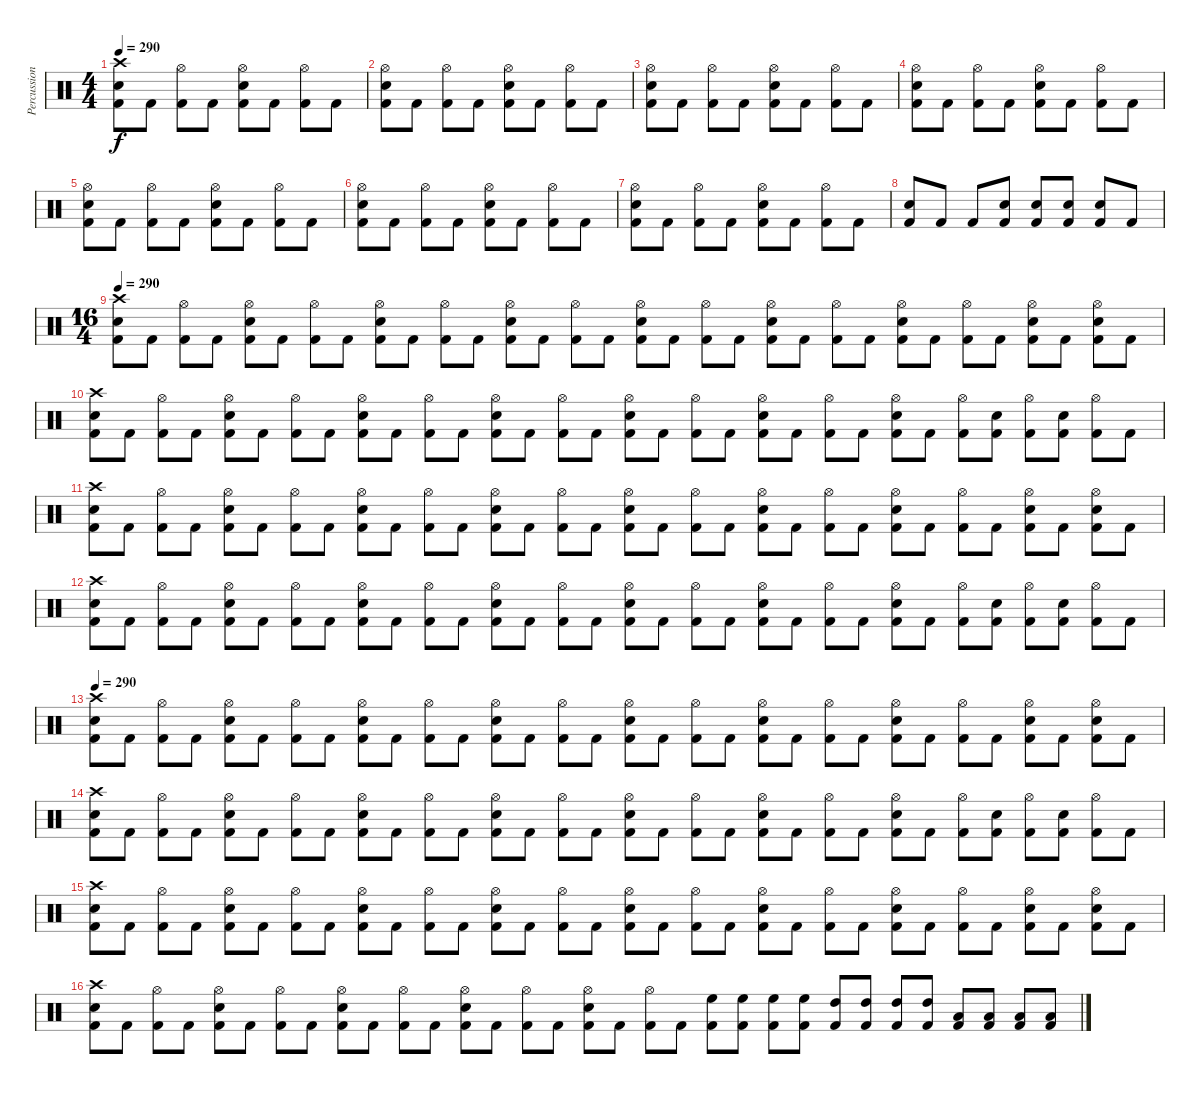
\track ("Percussion" "Percussion") {instrument percussion}
\staff {score}
\articulation defaults
\ts (4 4)
\tempo 290
\clef neutral
\ks c
("Crash high (hit)" "Snare (hit) 2" "Kick (hit) 2").8{dy f} "Kick (hit) 2".8 ("Hi-Hat (open)" "Kick (hit) 2").8 "Kick (hit) 2".8 ("Hi-Hat (open)" "Snare (hit) 2" "Kick (hit) 2").8 "Kick (hit) 2".8 ("Hi-Hat (open)" "Kick (hit) 2").8 "Kick (hit) 2".8 |
("Hi-Hat (open)" "Snare (hit) 2" "Kick (hit) 2").8 "Kick (hit) 2".8 ("Hi-Hat (open)" "Kick (hit) 2").8 "Kick (hit) 2".8 ("Hi-Hat (open)" "Snare (hit) 2" "Kick (hit) 2").8 "Kick (hit) 2".8 ("Hi-Hat (open)" "Kick (hit) 2").8 "Kick (hit) 2".8 |
("Hi-Hat (open)" "Snare (hit) 2" "Kick (hit) 2").8 "Kick (hit) 2".8 ("Hi-Hat (open)" "Kick (hit) 2").8 "Kick (hit) 2".8 ("Hi-Hat (open)" "Snare (hit) 2" "Kick (hit) 2").8 "Kick (hit) 2".8 ("Hi-Hat (open)" "Kick (hit) 2").8 "Kick (hit) 2".8 |
("Hi-Hat (open)" "Snare (hit) 2" "Kick (hit) 2").8 "Kick (hit) 2".8 ("Hi-Hat (open)" "Kick (hit) 2").8 "Kick (hit) 2".8 ("Hi-Hat (open)" "Snare (hit) 2" "Kick (hit) 2").8 "Kick (hit) 2".8 ("Hi-Hat (open)" "Kick (hit) 2").8 "Kick (hit) 2".8 |
("Hi-Hat (open)" "Snare (hit) 2" "Kick (hit) 2").8 "Kick (hit) 2".8 ("Hi-Hat (open)" "Kick (hit) 2").8 "Kick (hit) 2".8 ("Hi-Hat (open)" "Snare (hit) 2" "Kick (hit) 2").8 "Kick (hit) 2".8 ("Hi-Hat (open)" "Kick (hit) 2").8 "Kick (hit) 2".8 |
("Hi-Hat (open)" "Snare (hit) 2" "Kick (hit) 2").8 "Kick (hit) 2".8 ("Hi-Hat (open)" "Kick (hit) 2").8 "Kick (hit) 2".8 ("Hi-Hat (open)" "Snare (hit) 2" "Kick (hit) 2").8 "Kick (hit) 2".8 ("Hi-Hat (open)" "Kick (hit) 2").8 "Kick (hit) 2".8 |
("Hi-Hat (open)" "Snare (hit) 2" "Kick (hit) 2").8 "Kick (hit) 2".8 ("Hi-Hat (open)" "Kick (hit) 2").8 "Kick (hit) 2".8 ("Hi-Hat (open)" "Snare (hit) 2" "Kick (hit) 2").8 "Kick (hit) 2".8 ("Hi-Hat (open)" "Kick (hit) 2").8 "Kick (hit) 2".8 |
("Snare (hit) 2" "Kick (hit) 2").8 "Kick (hit) 2".8 "Kick (hit) 2".8 ("Snare (hit) 2" "Kick (hit) 2").8 ("Snare (hit) 2" "Kick (hit) 2").8 ("Snare (hit) 2" "Kick (hit) 2").8 ("Snare (hit) 2" "Kick (hit) 2").8 "Kick (hit) 2".8 |
\ts (16 4)
\tempo 290
("Crash high (hit)" "Snare (hit) 2" "Kick (hit) 2").8 "Kick (hit) 2".8 ("Hi-Hat (open)" "Kick (hit) 2").8 "Kick (hit) 2".8 ("Hi-Hat (open)" "Snare (hit) 2" "Kick (hit) 2").8 "Kick (hit) 2".8 ("Hi-Hat (open)" "Kick (hit) 2").8 "Kick (hit) 2".8 ("Hi-Hat (open)" "Snare (hit) 2" "Kick (hit) 2").8 "Kick (hit) 2".8 ("Hi-Hat (open)" "Kick (hit) 2").8 "Kick (hit) 2".8 ("Hi-Hat (open)" "Snare (hit) 2" "Kick (hit) 2").8 "Kick (hit) 2".8 ("Hi-Hat (open)" "Kick (hit) 2").8 "Kick (hit) 2".8 ("Hi-Hat (open)" "Snare (hit) 2" "Kick (hit) 2").8 "Kick (hit) 2".8 ("Hi-Hat (open)" "Kick (hit) 2").8 "Kick (hit) 2".8 ("Hi-Hat (open)" "Snare (hit) 2" "Kick (hit) 2").8 "Kick (hit) 2".8 ("Hi-Hat (open)" "Kick (hit) 2").8 "Kick (hit) 2".8 ("Hi-Hat (open)" "Snare (hit) 2" "Kick (hit) 2").8 "Kick (hit) 2".8 ("Hi-Hat (open)" "Kick (hit) 2").8 "Kick (hit) 2".8 ("Hi-Hat (open)" "Snare (hit) 2" "Kick (hit) 2").8 "Kick (hit) 2".8 ("Hi-Hat (open)" "Snare (hit) 2" "Kick (hit) 2").8 "Kick (hit) 2".8 |
("Crash high (hit)" "Snare (hit) 2" "Kick (hit) 2").8 "Kick (hit) 2".8 ("Hi-Hat (open)" "Kick (hit) 2").8 "Kick (hit) 2".8 ("Hi-Hat (open)" "Snare (hit) 2" "Kick (hit) 2").8 "Kick (hit) 2".8 ("Hi-Hat (open)" "Kick (hit) 2").8 "Kick (hit) 2".8 ("Hi-Hat (open)" "Snare (hit) 2" "Kick (hit) 2").8 "Kick (hit) 2".8 ("Hi-Hat (open)" "Kick (hit) 2").8 "Kick (hit) 2".8 ("Hi-Hat (open)" "Snare (hit) 2" "Kick (hit) 2").8 "Kick (hit) 2".8 ("Hi-Hat (open)" "Kick (hit) 2").8 "Kick (hit) 2".8 ("Hi-Hat (open)" "Snare (hit) 2" "Kick (hit) 2").8 "Kick (hit) 2".8 ("Hi-Hat (open)" "Kick (hit) 2").8 "Kick (hit) 2".8 ("Hi-Hat (open)" "Snare (hit) 2" "Kick (hit) 2").8 "Kick (hit) 2".8 ("Hi-Hat (open)" "Kick (hit) 2").8 "Kick (hit) 2".8 ("Hi-Hat (open)" "Snare (hit) 2" "Kick (hit) 2").8 "Kick (hit) 2".8 ("Hi-Hat (open)" "Kick (hit) 2").8 ("Snare (hit) 2" "Kick (hit) 2").8 ("Hi-Hat (open)" "Kick (hit) 2").8 ("Snare (hit) 2" "Kick (hit) 2").8 ("Hi-Hat (open)" "Kick (hit) 2").8 "Kick (hit) 2".8 |
("Crash high (hit)" "Snare (hit) 2" "Kick (hit) 2").8 "Kick (hit) 2".8 ("Hi-Hat (open)" "Kick (hit) 2").8 "Kick (hit) 2".8 ("Hi-Hat (open)" "Snare (hit) 2" "Kick (hit) 2").8 "Kick (hit) 2".8 ("Hi-Hat (open)" "Kick (hit) 2").8 "Kick (hit) 2".8 ("Hi-Hat (open)" "Snare (hit) 2" "Kick (hit) 2").8 "Kick (hit) 2".8 ("Hi-Hat (open)" "Kick (hit) 2").8 "Kick (hit) 2".8 ("Hi-Hat (open)" "Snare (hit) 2" "Kick (hit) 2").8 "Kick (hit) 2".8 ("Hi-Hat (open)" "Kick (hit) 2").8 "Kick (hit) 2".8 ("Hi-Hat (open)" "Snare (hit) 2" "Kick (hit) 2").8 "Kick (hit) 2".8 ("Hi-Hat (open)" "Kick (hit) 2").8 "Kick (hit) 2".8 ("Hi-Hat (open)" "Snare (hit) 2" "Kick (hit) 2").8 "Kick (hit) 2".8 ("Hi-Hat (open)" "Kick (hit) 2").8 "Kick (hit) 2".8 ("Hi-Hat (open)" "Snare (hit) 2" "Kick (hit) 2").8 "Kick (hit) 2".8 ("Hi-Hat (open)" "Kick (hit) 2").8 "Kick (hit) 2".8 ("Hi-Hat (open)" "Snare (hit) 2" "Kick (hit) 2").8 "Kick (hit) 2".8 ("Hi-Hat (open)" "Snare (hit) 2" "Kick (hit) 2").8 "Kick (hit) 2".8 |
("Crash high (hit)" "Snare (hit) 2" "Kick (hit) 2").8 "Kick (hit) 2".8 ("Hi-Hat (open)" "Kick (hit) 2").8 "Kick (hit) 2".8 ("Hi-Hat (open)" "Snare (hit) 2" "Kick (hit) 2").8 "Kick (hit) 2".8 ("Hi-Hat (open)" "Kick (hit) 2").8 "Kick (hit) 2".8 ("Hi-Hat (open)" "Snare (hit) 2" "Kick (hit) 2").8 "Kick (hit) 2".8 ("Hi-Hat (open)" "Kick (hit) 2").8 "Kick (hit) 2".8 ("Hi-Hat (open)" "Snare (hit) 2" "Kick (hit) 2").8 "Kick (hit) 2".8 ("Hi-Hat (open)" "Kick (hit) 2").8 "Kick (hit) 2".8 ("Hi-Hat (open)" "Snare (hit) 2" "Kick (hit) 2").8 "Kick (hit) 2".8 ("Hi-Hat (open)" "Kick (hit) 2").8 "Kick (hit) 2".8 ("Hi-Hat (open)" "Snare (hit) 2" "Kick (hit) 2").8 "Kick (hit) 2".8 ("Hi-Hat (open)" "Kick (hit) 2").8 "Kick (hit) 2".8 ("Hi-Hat (open)" "Snare (hit) 2" "Kick (hit) 2").8 "Kick (hit) 2".8 ("Hi-Hat (open)" "Kick (hit) 2").8 ("Snare (hit) 2" "Kick (hit) 2").8 ("Hi-Hat (open)" "Kick (hit) 2").8 ("Snare (hit) 2" "Kick (hit) 2").8 ("Hi-Hat (open)" "Kick (hit) 2").8 "Kick (hit) 2".8 |
\tempo 290
("Crash high (hit)" "Snare (hit) 2" "Kick (hit) 2").8 "Kick (hit) 2".8 ("Hi-Hat (open)" "Kick (hit) 2").8 "Kick (hit) 2".8 ("Hi-Hat (open)" "Snare (hit) 2" "Kick (hit) 2").8 "Kick (hit) 2".8 ("Hi-Hat (open)" "Kick (hit) 2").8 "Kick (hit) 2".8 ("Hi-Hat (open)" "Snare (hit) 2" "Kick (hit) 2").8 "Kick (hit) 2".8 ("Hi-Hat (open)" "Kick (hit) 2").8 "Kick (hit) 2".8 ("Hi-Hat (open)" "Snare (hit) 2" "Kick (hit) 2").8 "Kick (hit) 2".8 ("Hi-Hat (open)" "Kick (hit) 2").8 "Kick (hit) 2".8 ("Hi-Hat (open)" "Snare (hit) 2" "Kick (hit) 2").8 "Kick (hit) 2".8 ("Hi-Hat (open)" "Kick (hit) 2").8 "Kick (hit) 2".8 ("Hi-Hat (open)" "Snare (hit) 2" "Kick (hit) 2").8 "Kick (hit) 2".8 ("Hi-Hat (open)" "Kick (hit) 2").8 "Kick (hit) 2".8 ("Hi-Hat (open)" "Snare (hit) 2" "Kick (hit) 2").8 "Kick (hit) 2".8 ("Hi-Hat (open)" "Kick (hit) 2").8 "Kick (hit) 2".8 ("Hi-Hat (open)" "Snare (hit) 2" "Kick (hit) 2").8 "Kick (hit) 2".8 ("Hi-Hat (open)" "Snare (hit) 2" "Kick (hit) 2").8 "Kick (hit) 2".8 |
("Crash high (hit)" "Snare (hit) 2" "Kick (hit) 2").8 "Kick (hit) 2".8 ("Hi-Hat (open)" "Kick (hit) 2").8 "Kick (hit) 2".8 ("Hi-Hat (open)" "Snare (hit) 2" "Kick (hit) 2").8 "Kick (hit) 2".8 ("Hi-Hat (open)" "Kick (hit) 2").8 "Kick (hit) 2".8 ("Hi-Hat (open)" "Snare (hit) 2" "Kick (hit) 2").8 "Kick (hit) 2".8 ("Hi-Hat (open)" "Kick (hit) 2").8 "Kick (hit) 2".8 ("Hi-Hat (open)" "Snare (hit) 2" "Kick (hit) 2").8 "Kick (hit) 2".8 ("Hi-Hat (open)" "Kick (hit) 2").8 "Kick (hit) 2".8 ("Hi-Hat (open)" "Snare (hit) 2" "Kick (hit) 2").8 "Kick (hit) 2".8 ("Hi-Hat (open)" "Kick (hit) 2").8 "Kick (hit) 2".8 ("Hi-Hat (open)" "Snare (hit) 2" "Kick (hit) 2").8 "Kick (hit) 2".8 ("Hi-Hat (open)" "Kick (hit) 2").8 "Kick (hit) 2".8 ("Hi-Hat (open)" "Snare (hit) 2" "Kick (hit) 2").8 "Kick (hit) 2".8 ("Hi-Hat (open)" "Kick (hit) 2").8 ("Snare (hit) 2" "Kick (hit) 2").8 ("Hi-Hat (open)" "Kick (hit) 2").8 ("Snare (hit) 2" "Kick (hit) 2").8 ("Hi-Hat (open)" "Kick (hit) 2").8 "Kick (hit) 2".8 |
("Crash high (hit)" "Snare (hit) 2" "Kick (hit) 2").8 "Kick (hit) 2".8 ("Hi-Hat (open)" "Kick (hit) 2").8 "Kick (hit) 2".8 ("Hi-Hat (open)" "Snare (hit) 2" "Kick (hit) 2").8 "Kick (hit) 2".8 ("Hi-Hat (open)" "Kick (hit) 2").8 "Kick (hit) 2".8 ("Hi-Hat (open)" "Snare (hit) 2" "Kick (hit) 2").8 "Kick (hit) 2".8 ("Hi-Hat (open)" "Kick (hit) 2").8 "Kick (hit) 2".8 ("Hi-Hat (open)" "Snare (hit) 2" "Kick (hit) 2").8 "Kick (hit) 2".8 ("Hi-Hat (open)" "Kick (hit) 2").8 "Kick (hit) 2".8 ("Hi-Hat (open)" "Snare (hit) 2" "Kick (hit) 2").8 "Kick (hit) 2".8 ("Hi-Hat (open)" "Kick (hit) 2").8 "Kick (hit) 2".8 ("Hi-Hat (open)" "Snare (hit) 2" "Kick (hit) 2").8 "Kick (hit) 2".8 ("Hi-Hat (open)" "Kick (hit) 2").8 "Kick (hit) 2".8 ("Hi-Hat (open)" "Snare (hit) 2" "Kick (hit) 2").8 "Kick (hit) 2".8 ("Hi-Hat (open)" "Kick (hit) 2").8 "Kick (hit) 2".8 ("Hi-Hat (open)" "Snare (hit) 2" "Kick (hit) 2").8 "Kick (hit) 2".8 ("Hi-Hat (open)" "Snare (hit) 2" "Kick (hit) 2").8 "Kick (hit) 2".8 |
("Crash high (hit)" "Snare (hit) 2" "Kick (hit) 2").8 "Kick (hit) 2".8 ("Hi-Hat (open)" "Kick (hit) 2").8 "Kick (hit) 2".8 ("Hi-Hat (open)" "Snare (hit) 2" "Kick (hit) 2").8 "Kick (hit) 2".8 ("Hi-Hat (open)" "Kick (hit) 2").8 "Kick (hit) 2".8 ("Hi-Hat (open)" "Snare (hit) 2" "Kick (hit) 2").8 "Kick (hit) 2".8 ("Hi-Hat (open)" "Kick (hit) 2").8 "Kick (hit) 2".8 ("Hi-Hat (open)" "Snare (hit) 2" "Kick (hit) 2").8 "Kick (hit) 2".8 ("Hi-Hat (open)" "Kick (hit) 2").8 "Kick (hit) 2".8 ("Hi-Hat (open)" "Snare (hit) 2" "Kick (hit) 2").8 "Kick (hit) 2".8 ("Hi-Hat (open)" "Kick (hit) 2").8 "Kick (hit) 2".8 ("High Floor Tom (hit)" "Kick (hit) 2").8 ("High Floor Tom (hit)" "Kick (hit) 2").8 ("High Floor Tom (hit)" "Kick (hit) 2").8 ("High Floor Tom (hit)" "Kick (hit) 2").8 ("High Tom (hit)" "Kick (hit) 2").8 ("High Tom (hit)" "Kick (hit) 2").8 ("High Tom (hit)" "Kick (hit) 2").8 ("High Tom (hit)" "Kick (hit) 2").8 ("Low Tom (hit)" "Kick (hit) 2").8 ("Low Tom (hit)" "Kick (hit) 2").8 ("Low Tom (hit)" "Kick (hit) 2").8 ("Low Tom (hit)" "Kick (hit) 2").8
